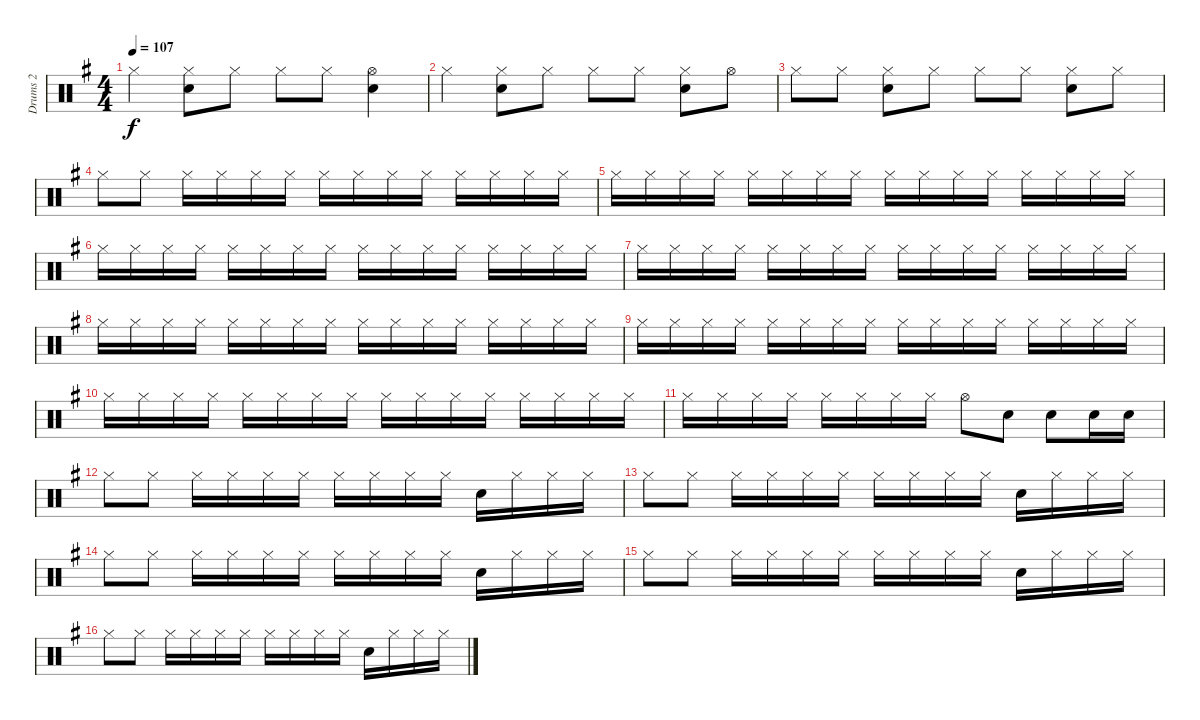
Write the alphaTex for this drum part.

\track ("Drums 2" "Drums 2") {instrument percussion}
\staff {score}
\articulation defaults
\ts (4 4)
\tempo 107
\clef neutral
\ks g "Hi-Hat (closed)".4{dy f}
("Hi-Hat (closed)" "Snare (hit) 2").8 "Hi-Hat (closed)".8 "Hi-Hat (closed)".8 "Hi-Hat (closed)".8 ("Hi-Hat (open)" "Snare (hit) 2").4 |
"Hi-Hat (closed)".4 ("Snare (hit) 2" "Hi-Hat (closed)").8 "Hi-Hat (closed)".8 "Hi-Hat (closed)".8 "Hi-Hat (closed)".8 ("Hi-Hat (closed)" "Snare (hit) 2").8 "Hi-Hat (open)".8 |
"Hi-Hat (closed)".8 "Hi-Hat (closed)".8 ("Hi-Hat (closed)" "Snare (hit) 2").8 "Hi-Hat (closed)".8 "Hi-Hat (closed)".8 "Hi-Hat (closed)".8 ("Snare (hit) 2" "Hi-Hat (closed)").8 "Hi-Hat (closed)".8 |
"Hi-Hat (closed)".8 "Hi-Hat (closed)".8 "Hi-Hat (closed)".16 "Hi-Hat (closed)".16 "Hi-Hat (closed)".16 "Hi-Hat (closed)".16 "Hi-Hat (closed)".16 "Hi-Hat (closed)".16 "Hi-Hat (closed)".16 "Hi-Hat (closed)".16 "Hi-Hat (closed)".16 "Hi-Hat (closed)".16 "Hi-Hat (closed)".16 "Hi-Hat (closed)".16 |
"Hi-Hat (closed)".16 "Hi-Hat (closed)".16 "Hi-Hat (closed)".16 "Hi-Hat (closed)".16 "Hi-Hat (closed)".16 "Hi-Hat (closed)".16 "Hi-Hat (closed)".16 "Hi-Hat (closed)".16 "Hi-Hat (closed)".16 "Hi-Hat (closed)".16 "Hi-Hat (closed)".16 "Hi-Hat (closed)".16 "Hi-Hat (closed)".16 "Hi-Hat (closed)".16 "Hi-Hat (closed)".16 "Hi-Hat (closed)".16 |
"Hi-Hat (closed)".16 "Hi-Hat (closed)".16 "Hi-Hat (closed)".16 "Hi-Hat (closed)".16 "Hi-Hat (closed)".16 "Hi-Hat (closed)".16 "Hi-Hat (closed)".16 "Hi-Hat (closed)".16 "Hi-Hat (closed)".16 "Hi-Hat (closed)".16 "Hi-Hat (closed)".16 "Hi-Hat (closed)".16 "Hi-Hat (closed)".16 "Hi-Hat (closed)".16 "Hi-Hat (closed)".16 "Hi-Hat (closed)".16 |
"Hi-Hat (closed)".16 "Hi-Hat (closed)".16 "Hi-Hat (closed)".16 "Hi-Hat (closed)".16 "Hi-Hat (closed)".16 "Hi-Hat (closed)".16 "Hi-Hat (closed)".16 "Hi-Hat (closed)".16 "Hi-Hat (closed)".16 "Hi-Hat (closed)".16 "Hi-Hat (closed)".16 "Hi-Hat (closed)".16 "Hi-Hat (closed)".16 "Hi-Hat (closed)".16 "Hi-Hat (closed)".16 "Hi-Hat (closed)".16 |
"Hi-Hat (closed)".16 "Hi-Hat (closed)".16 "Hi-Hat (closed)".16 "Hi-Hat (closed)".16 "Hi-Hat (closed)".16 "Hi-Hat (closed)".16 "Hi-Hat (closed)".16 "Hi-Hat (closed)".16 "Hi-Hat (closed)".16 "Hi-Hat (closed)".16 "Hi-Hat (closed)".16 "Hi-Hat (closed)".16 "Hi-Hat (closed)".16 "Hi-Hat (closed)".16 "Hi-Hat (closed)".16 "Hi-Hat (closed)".16 |
"Hi-Hat (closed)".16 "Hi-Hat (closed)".16 "Hi-Hat (closed)".16 "Hi-Hat (closed)".16 "Hi-Hat (closed)".16 "Hi-Hat (closed)".16 "Hi-Hat (closed)".16 "Hi-Hat (closed)".16 "Hi-Hat (closed)".16 "Hi-Hat (closed)".16 "Hi-Hat (closed)".16 "Hi-Hat (closed)".16 "Hi-Hat (closed)".16 "Hi-Hat (closed)".16 "Hi-Hat (closed)".16 "Hi-Hat (closed)".16 |
"Hi-Hat (closed)".16 "Hi-Hat (closed)".16 "Hi-Hat (closed)".16 "Hi-Hat (closed)".16 "Hi-Hat (closed)".16 "Hi-Hat (closed)".16 "Hi-Hat (closed)".16 "Hi-Hat (closed)".16 "Hi-Hat (closed)".16 "Hi-Hat (closed)".16 "Hi-Hat (closed)".16 "Hi-Hat (closed)".16 "Hi-Hat (closed)".16 "Hi-Hat (closed)".16 "Hi-Hat (closed)".16 "Hi-Hat (closed)".16 |
"Hi-Hat (closed)".16 "Hi-Hat (closed)".16 "Hi-Hat (closed)".16 "Hi-Hat (closed)".16 "Hi-Hat (closed)".16 "Hi-Hat (closed)".16 "Hi-Hat (closed)".16 "Hi-Hat (closed)".16 "Hi-Hat (open)".8 "Snare (hit) 2".8 "Snare (hit) 2".8 "Snare (hit) 2".16 "Snare (hit) 2".16 |
"Hi-Hat (closed)".8 "Hi-Hat (closed)".8 "Hi-Hat (closed)".16 "Hi-Hat (closed)".16 "Hi-Hat (closed)".16 "Hi-Hat (closed)".16 "Hi-Hat (closed)".16 "Hi-Hat (closed)".16 "Hi-Hat (closed)".16 "Hi-Hat (closed)".16 "Snare (hit) 2".16 "Hi-Hat (closed)".16 "Hi-Hat (closed)".16 "Hi-Hat (closed)".16 |
"Hi-Hat (closed)".8 "Hi-Hat (closed)".8 "Hi-Hat (closed)".16 "Hi-Hat (closed)".16 "Hi-Hat (closed)".16 "Hi-Hat (closed)".16 "Hi-Hat (closed)".16 "Hi-Hat (closed)".16 "Hi-Hat (closed)".16 "Hi-Hat (closed)".16 "Snare (hit) 2".16 "Hi-Hat (closed)".16 "Hi-Hat (closed)".16 "Hi-Hat (closed)".16 |
"Hi-Hat (closed)".8 "Hi-Hat (closed)".8 "Hi-Hat (closed)".16 "Hi-Hat (closed)".16 "Hi-Hat (closed)".16 "Hi-Hat (closed)".16 "Hi-Hat (closed)".16 "Hi-Hat (closed)".16 "Hi-Hat (closed)".16 "Hi-Hat (closed)".16 "Snare (hit) 2".16 "Hi-Hat (closed)".16 "Hi-Hat (closed)".16 "Hi-Hat (closed)".16 |
"Hi-Hat (closed)".8 "Hi-Hat (closed)".8 "Hi-Hat (closed)".16 "Hi-Hat (closed)".16 "Hi-Hat (closed)".16 "Hi-Hat (closed)".16 "Hi-Hat (closed)".16 "Hi-Hat (closed)".16 "Hi-Hat (closed)".16 "Hi-Hat (closed)".16 "Snare (hit) 2".16 "Hi-Hat (closed)".16 "Hi-Hat (closed)".16 "Hi-Hat (closed)".16 |
"Hi-Hat (closed)".8 "Hi-Hat (closed)".8 "Hi-Hat (closed)".16 "Hi-Hat (closed)".16 "Hi-Hat (closed)".16 "Hi-Hat (closed)".16 "Hi-Hat (closed)".16 "Hi-Hat (closed)".16 "Hi-Hat (closed)".16 "Hi-Hat (closed)".16 "Snare (hit) 2".16 "Hi-Hat (closed)".16 "Hi-Hat (closed)".16 "Hi-Hat (closed)".16
